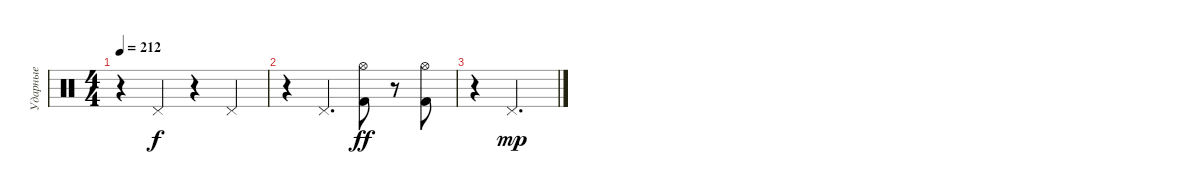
\track ("Ударные" "Ударные") {instrument percussion}
\staff {score}
\articulation defaults
\ts (4 4)
\tempo 212
\clef neutral
\ks c
r.4{dy f} "Pedal Hi-Hat (hit)".4 r.4 "Pedal Hi-Hat (hit)".4 |
r.4 "Pedal Hi-Hat (hit)".4{d} ("Hi-Hat (open)" "Kick (hit) 2").8{dy ff} r.8 ("Hi-Hat (open)" "Kick (hit) 2").8 |
r.4 "Pedal Hi-Hat (hit)".2{d dy mp}
